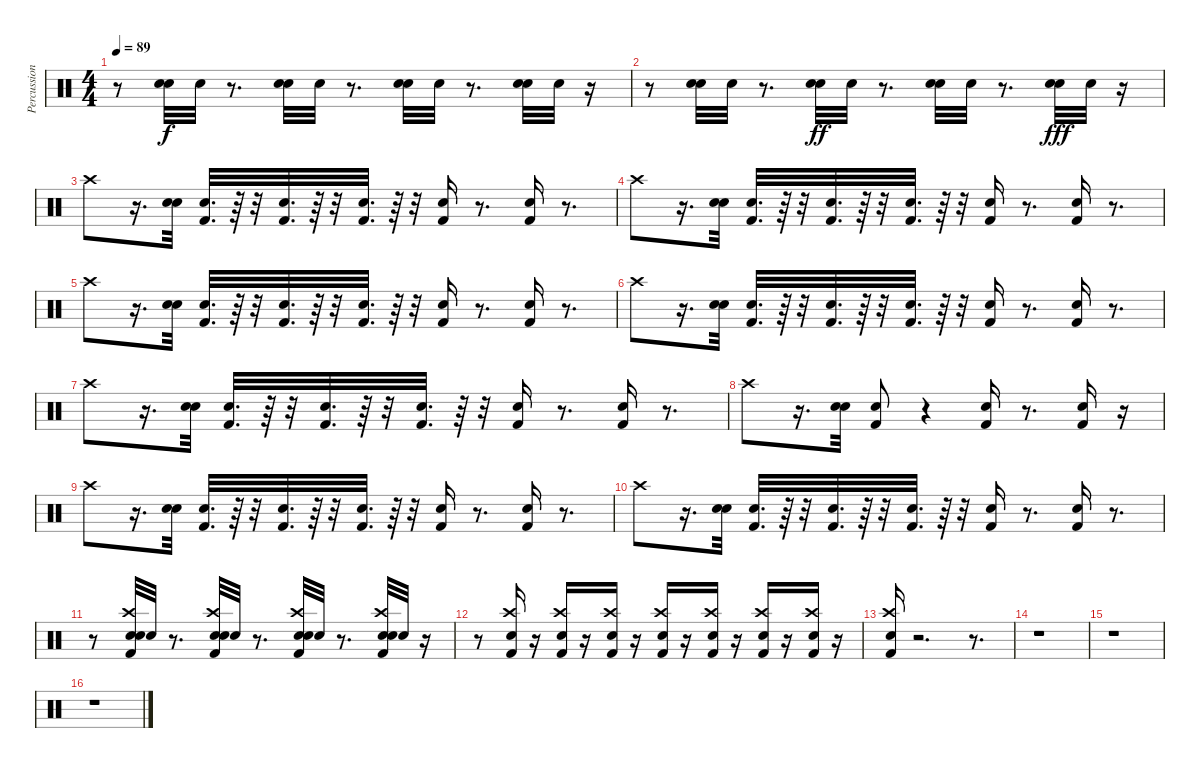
\track ("Percussion" "Percussion") {instrument percussion}
\staff {score}
\articulation defaults
\ts (4 4)
\tempo 89
\clef neutral
\ks c
r.8{dy f} ("Snare (hit) 2" "Snare (hit) 2").32 "Snare (hit) 2".32 r.8{d} ("Snare (hit) 2" "Snare (hit) 2").32 "Snare (hit) 2".32 r.8{d} ("Snare (hit) 2" "Snare (hit) 2").32 "Snare (hit) 2".32 r.8{d} ("Snare (hit) 2" "Snare (hit) 2").32 "Snare (hit) 2".32 r.16 |
r.8 ("Snare (hit) 2" "Snare (hit) 2").32 "Snare (hit) 2".32 r.8{d} ("Snare (hit) 2" "Snare (hit) 2").32{dy ff} "Snare (hit) 2".32 r.8{d} ("Snare (hit) 2" "Snare (hit) 2").32 "Snare (hit) 2".32 r.8{d} ("Snare (hit) 2" "Snare (hit) 2").32{dy fff} "Snare (hit) 2".32 r.16 |
"Crash high (hit)".8 r.16{d} ("Snare (hit) 2" "Snare (hit) 2").32 ("Snare (hit) 2" "Kick (hit) 2").32{d} r.64 r.32 ("Snare (hit) 2" "Kick (hit) 2").32{d} r.64 r.32 ("Snare (hit) 2" "Kick (hit) 2").32{d} r.64 r.32 ("Snare (hit) 2" "Kick (hit) 2").16 r.8{d} ("Snare (hit) 2" "Kick (hit) 2").16 r.8{d} |
"Crash high (hit)".8 r.16{d} ("Snare (hit) 2" "Snare (hit) 2").32 ("Snare (hit) 2" "Kick (hit) 2").32{d} r.64 r.32 ("Snare (hit) 2" "Kick (hit) 2").32{d} r.64 r.32 ("Snare (hit) 2" "Kick (hit) 2").32{d} r.64 r.32 ("Snare (hit) 2" "Kick (hit) 2").16 r.8{d} ("Snare (hit) 2" "Kick (hit) 2").16 r.8{d} |
"Crash high (hit)".8 r.16{d} ("Snare (hit) 2" "Snare (hit) 2").32 ("Snare (hit) 2" "Kick (hit) 2").32{d} r.64 r.32 ("Snare (hit) 2" "Kick (hit) 2").32{d} r.64 r.32 ("Snare (hit) 2" "Kick (hit) 2").32{d} r.64 r.32 ("Snare (hit) 2" "Kick (hit) 2").16 r.8{d} ("Snare (hit) 2" "Kick (hit) 2").16 r.8{d} |
"Crash high (hit)".8 r.16{d} ("Snare (hit) 2" "Snare (hit) 2").32 ("Snare (hit) 2" "Kick (hit) 2").32{d} r.64 r.32 ("Snare (hit) 2" "Kick (hit) 2").32{d} r.64 r.32 ("Snare (hit) 2" "Kick (hit) 2").32{d} r.64 r.32 ("Snare (hit) 2" "Kick (hit) 2").16 r.8{d} ("Snare (hit) 2" "Kick (hit) 2").16 r.8{d} |
"Crash high (hit)".8 r.16{d} ("Snare (hit) 2" "Snare (hit) 2").32 ("Snare (hit) 2" "Kick (hit) 2").32{d} r.64 r.32 ("Snare (hit) 2" "Kick (hit) 2").32{d} r.64 r.32 ("Snare (hit) 2" "Kick (hit) 2").32{d} r.64 r.32 ("Snare (hit) 2" "Kick (hit) 2").16 r.8{d} ("Snare (hit) 2" "Kick (hit) 2").16 r.8{d} |
"Crash high (hit)".8 r.16{d} ("Snare (hit) 2" "Snare (hit) 2").32 ("Snare (hit) 2" "Kick (hit) 2").8 r.4 ("Snare (hit) 2" "Kick (hit) 2").16 r.8{d} ("Snare (hit) 2" "Kick (hit) 2").16 r.16 |
"Crash high (hit)".8 r.16{d} ("Snare (hit) 2" "Snare (hit) 2").32 ("Snare (hit) 2" "Kick (hit) 2").32{d} r.64 r.32 ("Snare (hit) 2" "Kick (hit) 2").32{d} r.64 r.32 ("Snare (hit) 2" "Kick (hit) 2").32{d} r.64 r.32 ("Snare (hit) 2" "Kick (hit) 2").16 r.8{d} ("Snare (hit) 2" "Kick (hit) 2").16 r.8{d} |
"Crash high (hit)".8 r.16{d} ("Snare (hit) 2" "Snare (hit) 2").32 ("Snare (hit) 2" "Kick (hit) 2").32{d} r.64 r.32 ("Snare (hit) 2" "Kick (hit) 2").32{d} r.64 r.32 ("Snare (hit) 2" "Kick (hit) 2").32{d} r.64 r.32 ("Snare (hit) 2" "Kick (hit) 2").16 r.8{d} ("Snare (hit) 2" "Kick (hit) 2").16 r.8{d} |
r.8 ("Snare (hit) 2" "Kick (hit) 2" "Crash high (hit)" "Snare (hit) 2").32 "Snare (hit) 2".32 r.8{d} ("Snare (hit) 2" "Kick (hit) 2" "Crash high (hit)" "Snare (hit) 2").32 "Snare (hit) 2".32 r.8{d} ("Snare (hit) 2" "Kick (hit) 2" "Crash high (hit)" "Snare (hit) 2").32 "Snare (hit) 2".32 r.8{d} ("Snare (hit) 2" "Kick (hit) 2" "Crash high (hit)" "Snare (hit) 2").32 "Snare (hit) 2".32 r.16 |
r.8 ("Snare (hit) 2" "Kick (hit) 2" "Crash high (hit)").16 r.16 ("Snare (hit) 2" "Kick (hit) 2" "Crash high (hit)").16 r.16 ("Snare (hit) 2" "Kick (hit) 2" "Crash high (hit)").16 r.16 ("Snare (hit) 2" "Kick (hit) 2" "Crash high (hit)").16 r.16 ("Snare (hit) 2" "Kick (hit) 2" "Crash high (hit)").16 r.16 ("Snare (hit) 2" "Kick (hit) 2" "Crash high (hit)").16 r.16 ("Snare (hit) 2" "Kick (hit) 2" "Crash high (hit)").16 r.16 |
("Snare (hit) 2" "Kick (hit) 2" "Crash high (hit)").16 r.2{d} r.8{d} |
r.1 |
r.1 |
r.1
